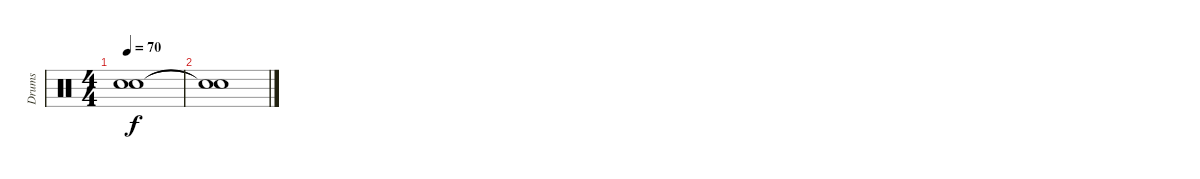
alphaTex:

\track ("Drums" "Drums") {instrument percussion}
\staff {score}
\articulation defaults
\ts (4 4)
\tempo 70
\clef neutral
\ks c
("Snare (hit)"{t} "Snare (hit)"{t}).1{dy f} |
("Snare (hit)"{t} "Snare (hit)"{t}).1
